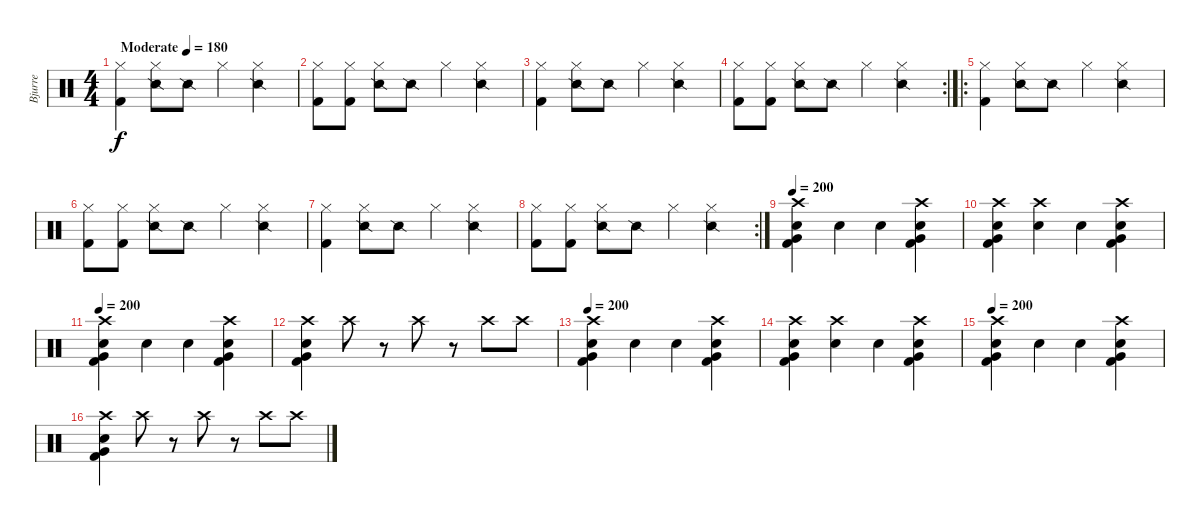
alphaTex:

\track ("Bjurre" "Bjurre") {instrument percussion}
\staff
\articulation defaults
\ts (4 4)
\tempo (180 "Moderate")
\clef neutral
\ks c
("Hi-Hat (closed)" "Kick (hit) 2").4{dy f} ("Hi-Hat (closed)" "Snare (side stick) 2").8 "Snare (side stick) 2".8 "Hi-Hat (closed)".4 ("Hi-Hat (closed)" "Snare (side stick) 2").4 |
("Hi-Hat (closed)" "Kick (hit) 2").8 ("Hi-Hat (closed)" "Kick (hit) 2").8 ("Hi-Hat (closed)" "Snare (side stick) 2").8 "Snare (side stick) 2".8 "Hi-Hat (closed)".4 ("Hi-Hat (closed)" "Snare (side stick) 2").4 |
("Hi-Hat (closed)" "Kick (hit) 2").4 ("Hi-Hat (closed)" "Snare (side stick) 2").8 "Snare (side stick) 2".8 "Hi-Hat (closed)".4 ("Hi-Hat (closed)" "Snare (side stick) 2").4 |
\rc 2
("Hi-Hat (closed)" "Kick (hit) 2").8 ("Hi-Hat (closed)" "Kick (hit) 2").8 ("Hi-Hat (closed)" "Snare (side stick) 2").8 "Snare (side stick) 2".8 "Hi-Hat (closed)".4 ("Hi-Hat (closed)" "Snare (side stick) 2").4 |
\ro
("Hi-Hat (closed)" "Kick (hit) 2").4 ("Hi-Hat (closed)" "Snare (side stick) 2").8 "Snare (side stick) 2".8 "Hi-Hat (closed)".4 ("Hi-Hat (closed)" "Snare (side stick) 2").4 |
("Hi-Hat (closed)" "Kick (hit) 2").8 ("Hi-Hat (closed)" "Kick (hit) 2").8 ("Hi-Hat (closed)" "Snare (side stick) 2").8 "Snare (side stick) 2".8 "Hi-Hat (closed)".4 ("Hi-Hat (closed)" "Snare (side stick) 2").4 |
("Hi-Hat (closed)" "Kick (hit) 2").4 ("Hi-Hat (closed)" "Snare (side stick) 2").8 "Snare (side stick) 2".8 "Hi-Hat (closed)".4 ("Hi-Hat (closed)" "Snare (side stick) 2").4 |
\rc 2
("Hi-Hat (closed)" "Kick (hit) 2").8 ("Hi-Hat (closed)" "Kick (hit) 2").8 ("Hi-Hat (closed)" "Snare (side stick) 2").8 "Snare (side stick) 2".8 "Hi-Hat (closed)".4 ("Hi-Hat (closed)" "Snare (side stick) 2").4 |
\tempo 130
\tempo 200
("Kick (hit) 2" "Electric Snare (hit)" "Very Low Tom (hit)" "Crash high (hit)").4 "Snare (hit)".4 "Snare (hit)".4 ("Kick (hit) 2" "Electric Snare (hit)" "Very Low Tom (hit)" "Crash high (hit)").4 |
("Kick (hit) 2" "Electric Snare (hit)" "Very Low Tom (hit)" "Crash high (hit)").4 ("Crash high (hit)" "Snare (hit)").4 "Snare (hit)".4 ("Kick (hit) 2" "Electric Snare (hit)" "Very Low Tom (hit)" "Crash high (hit)").4 |
\tempo 200
("Kick (hit) 2" "Electric Snare (hit)" "Very Low Tom (hit)" "Crash high (hit)").4 "Snare (hit)".4 "Snare (hit)".4 ("Kick (hit) 2" "Electric Snare (hit)" "Very Low Tom (hit)" "Crash high (hit)").4 |
("Kick (hit) 2" "Electric Snare (hit)" "Very Low Tom (hit)" "Crash high (hit)").4 "Crash high (hit)".8 r.8 "Crash high (hit)".8 r.8 "Crash high (hit)".8 "Crash high (hit)".8 |
\tempo 130
\tempo 200
("Kick (hit) 2" "Electric Snare (hit)" "Very Low Tom (hit)" "Crash high (hit)").4 "Snare (hit)".4 "Snare (hit)".4 ("Kick (hit) 2" "Electric Snare (hit)" "Very Low Tom (hit)" "Crash high (hit)").4 |
("Kick (hit) 2" "Electric Snare (hit)" "Very Low Tom (hit)" "Crash high (hit)").4 ("Crash high (hit)" "Snare (hit)").4 "Snare (hit)".4 ("Kick (hit) 2" "Electric Snare (hit)" "Very Low Tom (hit)" "Crash high (hit)").4 |
\tempo 200
("Kick (hit) 2" "Electric Snare (hit)" "Very Low Tom (hit)" "Crash high (hit)").4 "Snare (hit)".4 "Snare (hit)".4 ("Kick (hit) 2" "Electric Snare (hit)" "Very Low Tom (hit)" "Crash high (hit)").4 |
("Kick (hit) 2" "Electric Snare (hit)" "Very Low Tom (hit)" "Crash high (hit)").4 "Crash high (hit)".8 r.8 "Crash high (hit)".8 r.8 "Crash high (hit)".8 "Crash high (hit)".8
